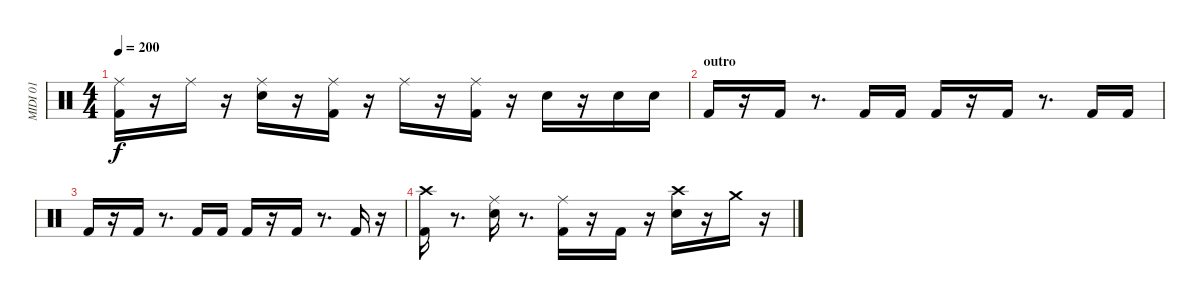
\track ("MIDI 01" "MIDI 01") {instrument percussion}
\staff {score}
\articulation defaults
\ts (4 4)
\tempo 200
\clef neutral
\ks c
("Kick (hit) 2" "Ride (middle)").16{dy f} r.16 "Ride (middle)".16 r.16 ("Snare (hit) 2" "Ride (middle)").16 r.16 ("Kick (hit) 2" "Ride (middle)").16 r.16 "Ride (middle)".16 r.16 ("Kick (hit) 2" "Ride (middle)").16 r.16 "Snare (hit) 2".16 r.16 "Snare (hit) 2".16 "Snare (hit) 2".16 |
\section ("" "outro")
"Kick (hit) 2".16 r.16 "Kick (hit) 2".16 r.8{d} "Kick (hit) 2".16 "Kick (hit) 2".16 "Kick (hit) 2".16 r.16 "Kick (hit) 2".16 r.8{d} "Kick (hit) 2".16 "Kick (hit) 2".16 |
"Kick (hit) 2".16 r.16 "Kick (hit) 2".16 r.8{d} "Kick (hit) 2".16 "Kick (hit) 2".16 "Kick (hit) 2".16 r.16 "Kick (hit) 2".16 r.8{d} "Kick (hit) 2".16 r.16 |
("Kick (hit) 2" "Crash high (hit)").16 r.8{d} ("Snare (hit) 2" "Ride (middle)").16 r.8{d} ("Kick (hit) 2" "Ride (middle)").16 r.16 "Kick (hit) 2".16 r.16 ("Snare (hit) 2" "Crash high (hit)").16 r.16 "Crash medium (hit)".16 r.16
